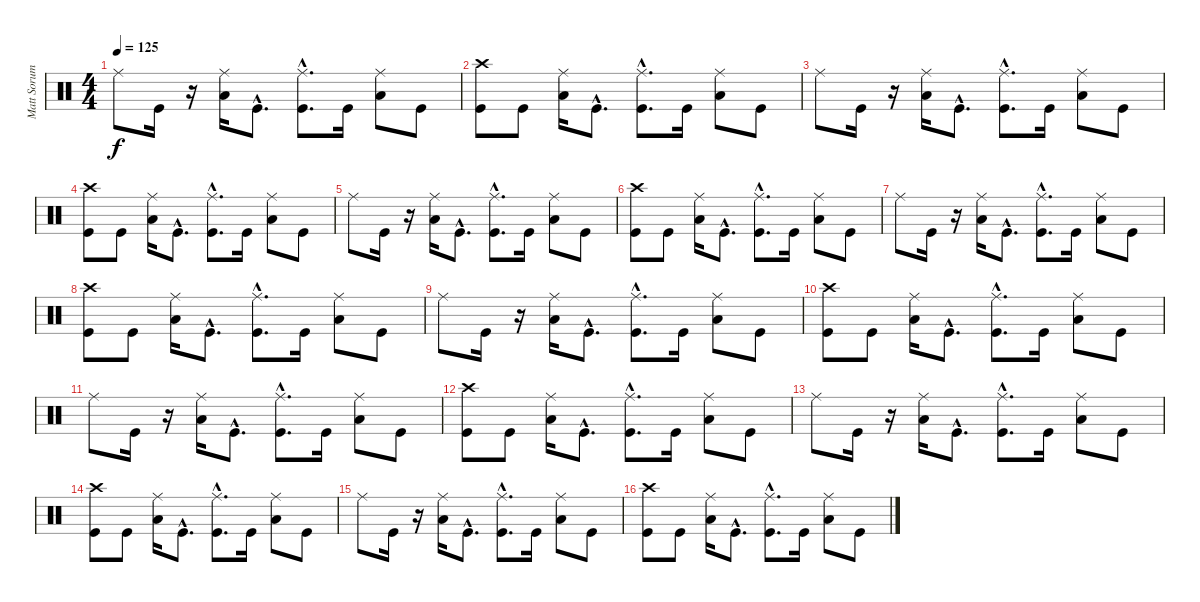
\track ("Matt Sorum" "Matt Sorum") {instrument percussion}
\staff {score}
\articulation defaults
\ts (4 4)
\tempo 125
\clef neutral
\ks c "Ride (middle)".8{dy f} "Kick (hit)".16
r.16 ("Low Tom (hit)" "Ride (middle)").16 "Kick (hit)"{hac}.8{d} ("Ride (middle)" "Kick (hit)"{hac}).8{d} "Kick (hit)".16 ("Low Tom (hit)" "Ride (middle)").8 "Kick (hit)".8 |
("Crash high (hit)" "Kick (hit)").8 "Kick (hit)".8 ("Low Tom (hit)" "Ride (middle)").16 "Kick (hit)"{hac}.8{d} ("Ride (middle)" "Kick (hit)"{hac}).8{d} "Kick (hit)".16 ("Low Tom (hit)" "Ride (middle)").8 "Kick (hit)".8 |
"Ride (middle)".8 "Kick (hit)".16 r.16 ("Low Tom (hit)" "Ride (middle)").16 "Kick (hit)"{hac}.8{d} ("Ride (middle)" "Kick (hit)"{hac}).8{d} "Kick (hit)".16 ("Low Tom (hit)" "Ride (middle)").8 "Kick (hit)".8 |
("Crash high (hit)" "Kick (hit)").8 "Kick (hit)".8 ("Low Tom (hit)" "Ride (middle)").16 "Kick (hit)"{hac}.8{d} ("Ride (middle)" "Kick (hit)"{hac}).8{d} "Kick (hit)".16 ("Low Tom (hit)" "Ride (middle)").8 "Kick (hit)".8 |
"Ride (middle)".8 "Kick (hit)".16 r.16 ("Low Tom (hit)" "Ride (middle)").16 "Kick (hit)"{hac}.8{d} ("Ride (middle)" "Kick (hit)"{hac}).8{d} "Kick (hit)".16 ("Low Tom (hit)" "Ride (middle)").8 "Kick (hit)".8 |
("Crash high (hit)" "Kick (hit)").8 "Kick (hit)".8 ("Low Tom (hit)" "Ride (middle)").16 "Kick (hit)"{hac}.8{d} ("Ride (middle)" "Kick (hit)"{hac}).8{d} "Kick (hit)".16 ("Low Tom (hit)" "Ride (middle)").8 "Kick (hit)".8 |
"Ride (middle)".8 "Kick (hit)".16 r.16 ("Low Tom (hit)" "Ride (middle)").16 "Kick (hit)"{hac}.8{d} ("Ride (middle)" "Kick (hit)"{hac}).8{d} "Kick (hit)".16 ("Low Tom (hit)" "Ride (middle)").8 "Kick (hit)".8 |
("Crash high (hit)" "Kick (hit)").8 "Kick (hit)".8 ("Low Tom (hit)" "Ride (middle)").16 "Kick (hit)"{hac}.8{d} ("Ride (middle)" "Kick (hit)"{hac}).8{d} "Kick (hit)".16 ("Low Tom (hit)" "Ride (middle)").8 "Kick (hit)".8 |
"Ride (middle)".8 "Kick (hit)".16 r.16 ("Low Tom (hit)" "Ride (middle)").16 "Kick (hit)"{hac}.8{d} ("Ride (middle)" "Kick (hit)"{hac}).8{d} "Kick (hit)".16 ("Low Tom (hit)" "Ride (middle)").8 "Kick (hit)".8 |
("Crash high (hit)" "Kick (hit)").8 "Kick (hit)".8 ("Low Tom (hit)" "Ride (middle)").16 "Kick (hit)"{hac}.8{d} ("Ride (middle)" "Kick (hit)"{hac}).8{d} "Kick (hit)".16 ("Low Tom (hit)" "Ride (middle)").8 "Kick (hit)".8 |
"Ride (middle)".8 "Kick (hit)".16 r.16 ("Low Tom (hit)" "Ride (middle)").16 "Kick (hit)"{hac}.8{d} ("Ride (middle)" "Kick (hit)"{hac}).8{d} "Kick (hit)".16 ("Low Tom (hit)" "Ride (middle)").8 "Kick (hit)".8 |
("Crash high (hit)" "Kick (hit)").8 "Kick (hit)".8 ("Low Tom (hit)" "Ride (middle)").16 "Kick (hit)"{hac}.8{d} ("Ride (middle)" "Kick (hit)"{hac}).8{d} "Kick (hit)".16 ("Low Tom (hit)" "Ride (middle)").8 "Kick (hit)".8 |
"Ride (middle)".8 "Kick (hit)".16 r.16 ("Low Tom (hit)" "Ride (middle)").16 "Kick (hit)"{hac}.8{d} ("Ride (middle)" "Kick (hit)"{hac}).8{d} "Kick (hit)".16 ("Low Tom (hit)" "Ride (middle)").8 "Kick (hit)".8 |
("Crash high (hit)" "Kick (hit)").8 "Kick (hit)".8 ("Low Tom (hit)" "Ride (middle)").16 "Kick (hit)"{hac}.8{d} ("Ride (middle)" "Kick (hit)"{hac}).8{d} "Kick (hit)".16 ("Low Tom (hit)" "Ride (middle)").8 "Kick (hit)".8 |
"Ride (middle)".8 "Kick (hit)".16 r.16 ("Low Tom (hit)" "Ride (middle)").16 "Kick (hit)"{hac}.8{d} ("Ride (middle)" "Kick (hit)"{hac}).8{d} "Kick (hit)".16 ("Low Tom (hit)" "Ride (middle)").8 "Kick (hit)".8 |
("Crash high (hit)" "Kick (hit)").8 "Kick (hit)".8 ("Low Tom (hit)" "Ride (middle)").16 "Kick (hit)"{hac}.8{d} ("Ride (middle)" "Kick (hit)"{hac}).8{d} "Kick (hit)".16 ("Low Tom (hit)" "Ride (middle)").8 "Kick (hit)".8
